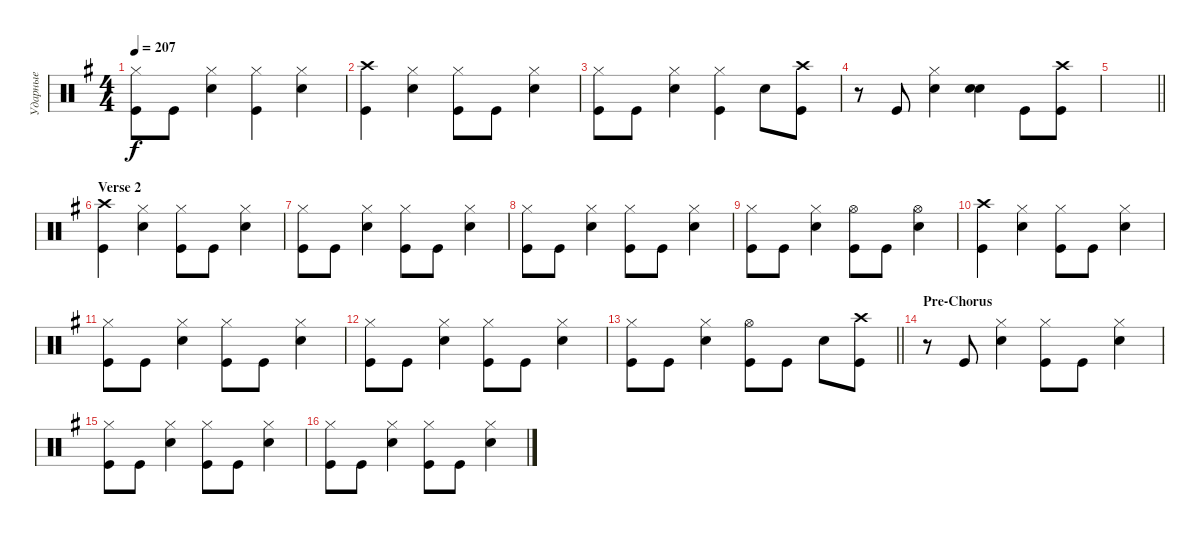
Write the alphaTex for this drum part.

\track ("Ударные" "Ударные") {instrument percussion}
\staff {score}
\articulation defaults
\ts (4 4)
\tempo 207
\clef neutral
\ks eminor
("Kick (hit)" "Hi-Hat (closed)").8{dy f} "Kick (hit)".8 ("Snare (hit) 2" "Hi-Hat (closed)").4 ("Kick (hit)" "Hi-Hat (closed)").4 ("Snare (hit) 2" "Hi-Hat (closed)").4 |
("Kick (hit)" "Crash high (hit)").4 ("Snare (hit) 2" "Hi-Hat (closed)").4 ("Kick (hit)" "Hi-Hat (closed)").8 "Kick (hit)".8 ("Snare (hit) 2" "Hi-Hat (closed)").4 |
("Kick (hit)" "Hi-Hat (closed)").8 "Kick (hit)".8 ("Snare (hit) 2" "Hi-Hat (closed)").4 ("Kick (hit)" "Hi-Hat (closed)").4 "Snare (hit) 2".8 ("Crash high (hit)" "Kick (hit)").8 |
r.8 "Kick (hit)".8 ("Snare (hit) 2" "Hi-Hat (closed)").4 ("Snare (hit) 2" "Snare (hit) 2").4{bd 240} "Kick (hit)".8 ("Kick (hit)" "Crash high (hit)").8 |
\barLineRight lightlight
|
\section ("" "Verse 2")
("Kick (hit)" "Crash high (hit)").4 ("Snare (hit) 2" "Hi-Hat (closed)").4 ("Kick (hit)" "Hi-Hat (closed)").8 "Kick (hit)".8 ("Snare (hit) 2" "Hi-Hat (closed)").4 |
("Kick (hit)" "Hi-Hat (closed)").8 "Kick (hit)".8 ("Snare (hit) 2" "Hi-Hat (closed)").4 ("Kick (hit)" "Hi-Hat (closed)").8 "Kick (hit)".8 ("Snare (hit) 2" "Hi-Hat (closed)").4 |
("Kick (hit)" "Hi-Hat (closed)").8 "Kick (hit)".8 ("Snare (hit) 2" "Hi-Hat (closed)").4 ("Kick (hit)" "Hi-Hat (closed)").8 "Kick (hit)".8 ("Snare (hit) 2" "Hi-Hat (closed)").4 |
("Kick (hit)" "Hi-Hat (closed)").8 "Kick (hit)".8 ("Snare (hit) 2" "Hi-Hat (closed)").4 ("Kick (hit)" "Hi-Hat (open)").8 "Kick (hit)".8 ("Snare (hit) 2" "Hi-Hat (open)").4 |
("Kick (hit)" "Crash high (hit)").4 ("Snare (hit) 2" "Hi-Hat (closed)").4 ("Kick (hit)" "Hi-Hat (closed)").8 "Kick (hit)".8 ("Snare (hit) 2" "Hi-Hat (closed)").4 |
("Kick (hit)" "Hi-Hat (closed)").8 "Kick (hit)".8 ("Snare (hit) 2" "Hi-Hat (closed)").4 ("Kick (hit)" "Hi-Hat (closed)").8 "Kick (hit)".8 ("Snare (hit) 2" "Hi-Hat (closed)").4 |
("Kick (hit)" "Hi-Hat (closed)").8 "Kick (hit)".8 ("Snare (hit) 2" "Hi-Hat (closed)").4 ("Kick (hit)" "Hi-Hat (closed)").8 "Kick (hit)".8 ("Snare (hit) 2" "Hi-Hat (closed)").4 |
\barLineRight lightlight
("Kick (hit)" "Hi-Hat (closed)").8 "Kick (hit)".8 ("Snare (hit) 2" "Hi-Hat (closed)").4 ("Kick (hit)" "Hi-Hat (open)").8 "Kick (hit)".8 "Snare (hit) 2".8 ("Kick (hit)" "Crash high (hit)").8 |
\section ("" "Pre-Chorus")
r.8 "Kick (hit)".8 ("Snare (hit) 2" "Hi-Hat (closed)").4 ("Kick (hit)" "Hi-Hat (closed)").8 "Kick (hit)".8 ("Snare (hit) 2" "Hi-Hat (closed)").4 |
("Kick (hit)" "Hi-Hat (closed)").8 "Kick (hit)".8 ("Snare (hit) 2" "Hi-Hat (closed)").4 ("Kick (hit)" "Hi-Hat (closed)").8 "Kick (hit)".8 ("Snare (hit) 2" "Hi-Hat (closed)").4 |
("Kick (hit)" "Hi-Hat (closed)").8 "Kick (hit)".8 ("Snare (hit) 2" "Hi-Hat (closed)").4 ("Kick (hit)" "Hi-Hat (closed)").8 "Kick (hit)".8 ("Snare (hit) 2" "Hi-Hat (closed)").4
